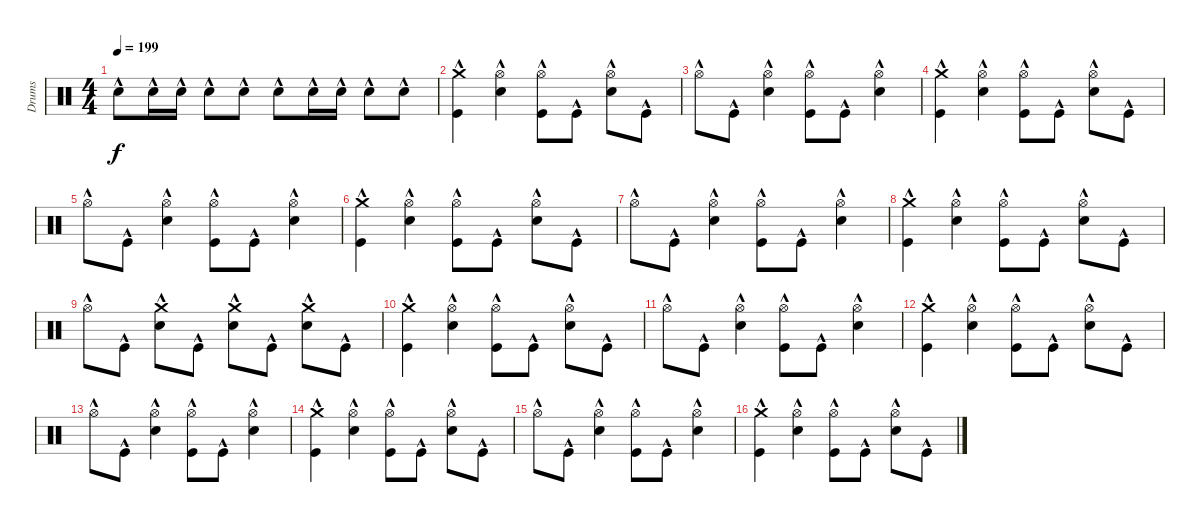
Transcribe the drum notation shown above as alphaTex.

\track ("Drumkit" "Drums") {instrument percussion}
\staff {score}
\articulation defaults
\ts (4 4)
\tempo 199
\clef neutral
\ks c "Snare (hit) 2"{hac}.8{dy f} "Snare (hit) 2"{hac}.16 "Snare (hit) 2"{hac}.16 "Snare (hit) 2"{hac}.8 "Snare (hit) 2"{hac}.8 "Snare (hit) 2"{hac}.8 "Snare (hit) 2"{hac}.16 "Snare (hit) 2"{hac}.16 "Snare (hit) 2"{hac}.8 "Snare (hit) 2"{hac}.8
|
("Kick (hit)"{hac} "Crash medium (hit)"{hac}).4 ("Hi-Hat (open)"{hac} "Snare (hit) 2"{hac}).4 ("Hi-Hat (open)"{hac} "Kick (hit)"{hac}).8 "Kick (hit)"{hac}.8 ("Hi-Hat (open)"{hac} "Snare (hit) 2"{hac}).8 "Kick (hit)"{hac}.8 |
"Hi-Hat (open)"{hac}.8 "Kick (hit)"{hac}.8 ("Hi-Hat (open)"{hac} "Snare (hit) 2"{hac}).4 ("Hi-Hat (open)"{hac} "Kick (hit)"{hac}).8 "Kick (hit)"{hac}.8 ("Hi-Hat (open)"{hac} "Snare (hit) 2"{hac}).4 |
("Kick (hit)"{hac} "Crash medium (hit)"{hac}).4 ("Hi-Hat (open)"{hac} "Snare (hit) 2"{hac}).4 ("Hi-Hat (open)"{hac} "Kick (hit)"{hac}).8 "Kick (hit)"{hac}.8 ("Hi-Hat (open)"{hac} "Snare (hit) 2"{hac}).8 "Kick (hit)"{hac}.8 |
"Hi-Hat (open)"{hac}.8 "Kick (hit)"{hac}.8 ("Hi-Hat (open)"{hac} "Snare (hit) 2"{hac}).4 ("Hi-Hat (open)"{hac} "Kick (hit)"{hac}).8 "Kick (hit)"{hac}.8 ("Hi-Hat (open)"{hac} "Snare (hit) 2"{hac}).4 |
("Kick (hit)"{hac} "Crash medium (hit)"{hac}).4 ("Hi-Hat (open)"{hac} "Snare (hit) 2"{hac}).4 ("Hi-Hat (open)"{hac} "Kick (hit)"{hac}).8 "Kick (hit)"{hac}.8 ("Hi-Hat (open)"{hac} "Snare (hit) 2"{hac}).8 "Kick (hit)"{hac}.8 |
"Hi-Hat (open)"{hac}.8 "Kick (hit)"{hac}.8 ("Hi-Hat (open)"{hac} "Snare (hit) 2"{hac}).4 ("Hi-Hat (open)"{hac} "Kick (hit)"{hac}).8 "Kick (hit)"{hac}.8 ("Hi-Hat (open)"{hac} "Snare (hit) 2"{hac}).4 |
("Kick (hit)"{hac} "Crash medium (hit)"{hac}).4 ("Hi-Hat (open)"{hac} "Snare (hit) 2"{hac}).4 ("Hi-Hat (open)"{hac} "Kick (hit)"{hac}).8 "Kick (hit)"{hac}.8 ("Hi-Hat (open)"{hac} "Snare (hit) 2"{hac}).8 "Kick (hit)"{hac}.8 |
"Hi-Hat (open)"{hac}.8 "Kick (hit)"{hac}.8 ("Snare (hit) 2"{hac} "Crash medium (hit)"{hac}).8 "Kick (hit)"{hac}.8 ("Snare (hit) 2"{hac} "Crash medium (hit)"{hac}).8 "Kick (hit)"{hac}.8 ("Snare (hit) 2"{hac} "Crash medium (hit)"{hac}).8 "Kick (hit)"{hac}.8 |
("Kick (hit)"{hac} "Crash medium (hit)"{hac}).4 ("Hi-Hat (open)"{hac} "Snare (hit) 2"{hac}).4 ("Hi-Hat (open)"{hac} "Kick (hit)"{hac}).8 "Kick (hit)"{hac}.8 ("Hi-Hat (open)"{hac} "Snare (hit) 2"{hac}).8 "Kick (hit)"{hac}.8 |
"Hi-Hat (open)"{hac}.8 "Kick (hit)"{hac}.8 ("Hi-Hat (open)"{hac} "Snare (hit) 2"{hac}).4 ("Hi-Hat (open)"{hac} "Kick (hit)"{hac}).8 "Kick (hit)"{hac}.8 ("Hi-Hat (open)"{hac} "Snare (hit) 2"{hac}).4 |
("Kick (hit)"{hac} "Crash medium (hit)"{hac}).4 ("Hi-Hat (open)"{hac} "Snare (hit) 2"{hac}).4 ("Hi-Hat (open)"{hac} "Kick (hit)"{hac}).8 "Kick (hit)"{hac}.8 ("Hi-Hat (open)"{hac} "Snare (hit) 2"{hac}).8 "Kick (hit)"{hac}.8 |
"Hi-Hat (open)"{hac}.8 "Kick (hit)"{hac}.8 ("Hi-Hat (open)"{hac} "Snare (hit) 2"{hac}).4 ("Hi-Hat (open)"{hac} "Kick (hit)"{hac}).8 "Kick (hit)"{hac}.8 ("Hi-Hat (open)"{hac} "Snare (hit) 2"{hac}).4 |
("Kick (hit)"{hac} "Crash medium (hit)"{hac}).4 ("Hi-Hat (open)"{hac} "Snare (hit) 2"{hac}).4 ("Hi-Hat (open)"{hac} "Kick (hit)"{hac}).8 "Kick (hit)"{hac}.8 ("Hi-Hat (open)"{hac} "Snare (hit) 2"{hac}).8 "Kick (hit)"{hac}.8 |
"Hi-Hat (open)"{hac}.8 "Kick (hit)"{hac}.8 ("Hi-Hat (open)"{hac} "Snare (hit) 2"{hac}).4 ("Hi-Hat (open)"{hac} "Kick (hit)"{hac}).8 "Kick (hit)"{hac}.8 ("Hi-Hat (open)"{hac} "Snare (hit) 2"{hac}).4 |
("Kick (hit)"{hac} "Crash medium (hit)"{hac}).4 ("Hi-Hat (open)"{hac} "Snare (hit) 2"{hac}).4 ("Hi-Hat (open)"{hac} "Kick (hit)"{hac}).8 "Kick (hit)"{hac}.8 ("Hi-Hat (open)"{hac} "Snare (hit) 2"{hac}).8 "Kick (hit)"{hac}.8
